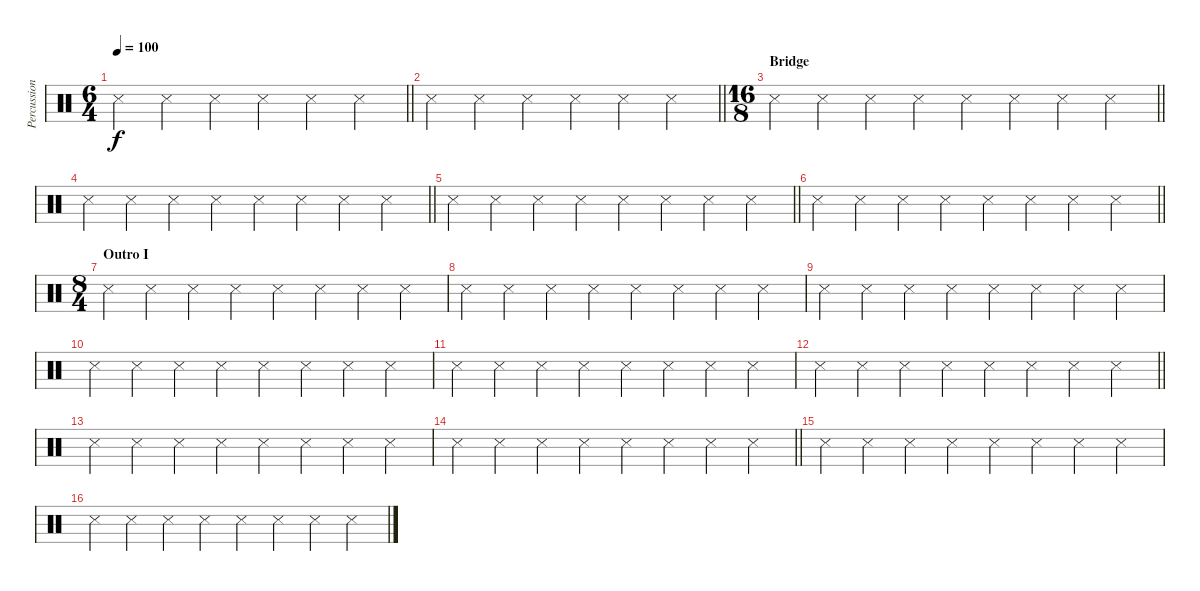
\track ("Percussion" "Percussion") {mute instrument percussion}
\staff {score}
\articulation defaults
\ts (6 4)
\tempo 100
\clef neutral
\barLineRight lightlight
\ks c "Metronome (hit)".4{dy f} "Snare (side stick) 3".4 "Snare (side stick) 3".4 "Snare (side stick) 3".4 "Snare (side stick) 3".4 "Snare (side stick) 3".4
|
\barLineRight lightlight "Metronome (hit)".4 "Snare (side stick) 3".4 "Snare (side stick) 3".4 "Snare (side stick) 3".4 "Snare (side stick) 3".4 "Snare (side stick) 3".4
|
\ts (16 8)
\section ("" "Bridge")
\barLineRight lightlight "Metronome (hit)".4 "Snare (side stick) 3".4 "Snare (side stick) 3".4 "Snare (side stick) 3".4 "Metronome (hit)".4 "Snare (side stick) 3".4 "Snare (side stick) 3".4 "Snare (side stick) 3".4
|
\barLineRight lightlight "Metronome (hit)".4 "Snare (side stick) 3".4 "Snare (side stick) 3".4 "Snare (side stick) 3".4 "Metronome (hit)".4 "Snare (side stick) 3".4 "Snare (side stick) 3".4 "Snare (side stick) 3".4
|
\barLineRight lightlight "Metronome (hit)".4 "Snare (side stick) 3".4 "Snare (side stick) 3".4 "Snare (side stick) 3".4 "Metronome (hit)".4 "Snare (side stick) 3".4 "Snare (side stick) 3".4 "Snare (side stick) 3".4
|
\barLineRight lightlight "Metronome (hit)".4 "Snare (side stick) 3".4 "Snare (side stick) 3".4 "Snare (side stick) 3".4 "Metronome (hit)".4 "Snare (side stick) 3".4 "Snare (side stick) 3".4 "Snare (side stick) 3".4
|
\ts (8 4)
\section ("" "Outro I")
"Metronome (hit)".4 "Snare (side stick) 3".4 "Snare (side stick) 3".4 "Snare (side stick) 3".4 "Metronome (hit)".4 "Snare (side stick) 3".4 "Snare (side stick) 3".4 "Snare (side stick) 3".4 |
"Metronome (hit)".4 "Snare (side stick) 3".4 "Snare (side stick) 3".4 "Snare (side stick) 3".4 "Metronome (hit)".4 "Snare (side stick) 3".4 "Snare (side stick) 3".4 "Snare (side stick) 3".4 |
"Metronome (hit)".4 "Snare (side stick) 3".4 "Snare (side stick) 3".4 "Snare (side stick) 3".4 "Metronome (hit)".4 "Snare (side stick) 3".4 "Snare (side stick) 3".4 "Snare (side stick) 3".4 |
"Metronome (hit)".4 "Snare (side stick) 3".4 "Snare (side stick) 3".4 "Snare (side stick) 3".4 "Metronome (hit)".4 "Snare (side stick) 3".4 "Snare (side stick) 3".4 "Snare (side stick) 3".4 |
"Metronome (hit)".4 "Snare (side stick) 3".4 "Snare (side stick) 3".4 "Snare (side stick) 3".4 "Metronome (hit)".4 "Snare (side stick) 3".4 "Snare (side stick) 3".4 "Snare (side stick) 3".4 |
\barLineRight lightlight "Metronome (hit)".4 "Snare (side stick) 3".4 "Snare (side stick) 3".4 "Snare (side stick) 3".4 "Metronome (hit)".4 "Snare (side stick) 3".4 "Snare (side stick) 3".4 "Snare (side stick) 3".4
|
"Metronome (hit)".4 "Snare (side stick) 3".4 "Snare (side stick) 3".4 "Snare (side stick) 3".4 "Metronome (hit)".4 "Snare (side stick) 3".4 "Snare (side stick) 3".4 "Snare (side stick) 3".4 |
\barLineRight lightlight "Metronome (hit)".4 "Snare (side stick) 3".4 "Snare (side stick) 3".4 "Snare (side stick) 3".4 "Metronome (hit)".4 "Snare (side stick) 3".4 "Snare (side stick) 3".4 "Snare (side stick) 3".4
|
"Metronome (hit)".4 "Snare (side stick) 3".4 "Snare (side stick) 3".4 "Snare (side stick) 3".4 "Metronome (hit)".4 "Snare (side stick) 3".4 "Snare (side stick) 3".4 "Snare (side stick) 3".4 |
"Metronome (hit)".4 "Snare (side stick) 3".4 "Snare (side stick) 3".4 "Snare (side stick) 3".4 "Metronome (hit)".4 "Snare (side stick) 3".4 "Snare (side stick) 3".4 "Snare (side stick) 3".4
